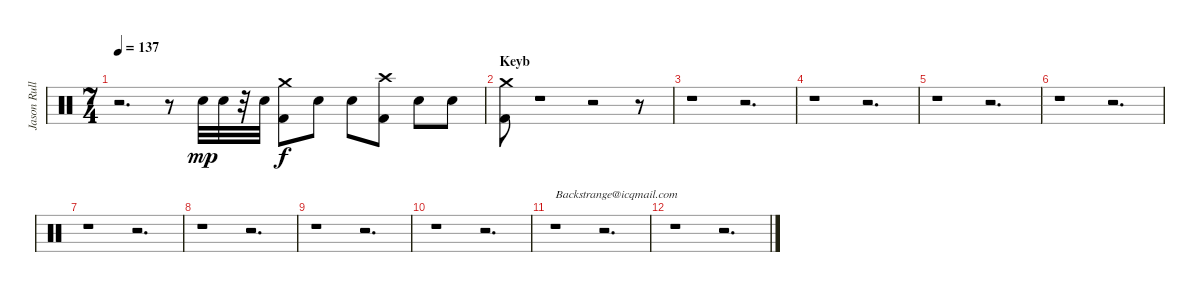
\track ("Jason Rullo" "Jason Rull") {instrument percussion}
\staff {score}
\articulation defaults
\ts (7 4)
\tempo 137
\clef neutral
\ks c
r.2{d dy f} r.8 "Electric Snare (hit)".32{dy mp} "Electric Snare (hit)".32 r.32 "Electric Snare (hit)".32 ("Crash medium (hit)" "Kick (hit) 2").8{dy f} "Electric Snare (hit)".8 "Electric Snare (hit)".8 ("Crash high (hit)" "Kick (hit) 2").8 "Electric Snare (hit)".8 "Electric Snare (hit)".8 |
\section ("" "Keyb")
("Crash medium (hit)" "Kick (hit) 2").8 r.1 r.2 r.8 |
r.1 r.2{d} |
r.1 r.2{d} |
r.1 r.2{d} |
r.1 r.2{d} |
r.1 r.2{d} |
r.1 r.2{d} |
r.1 r.2{d} |
r.1 r.2{d} |
r.1{txt "Backstrange@icqmail.com"} r.2{d} |
r.1 r.2{d}
